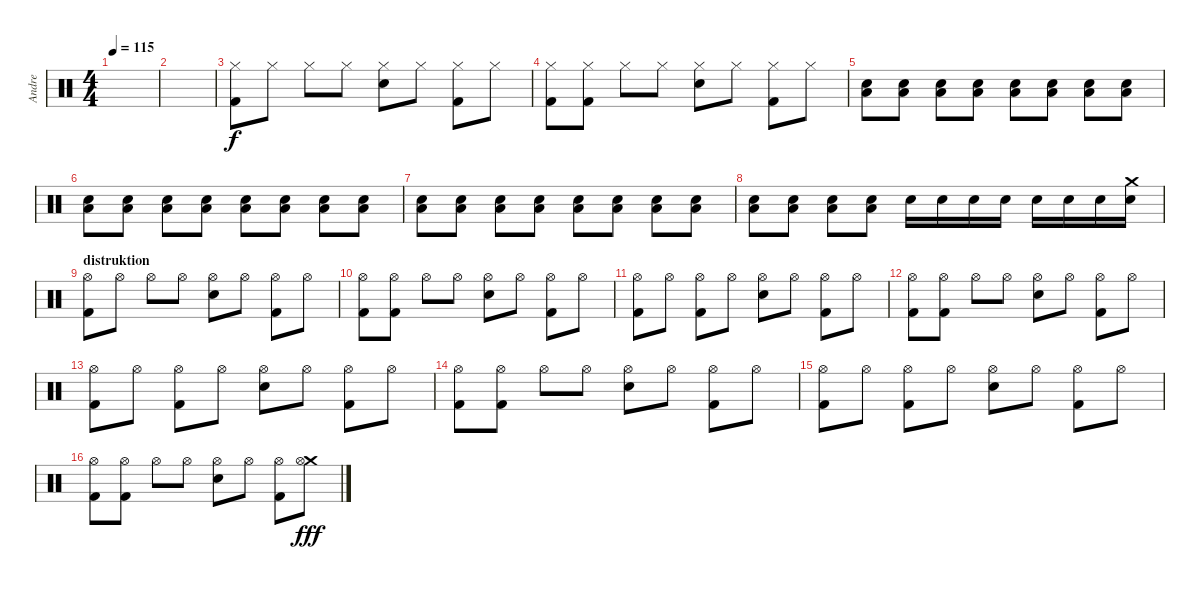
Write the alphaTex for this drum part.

\track ("Andre" "Andre") {instrument percussion}
\staff {score}
\articulation defaults
\ts (4 4)
\tempo 115
\clef neutral
\ks c
|
|
("Kick (hit) 2" "Hi-Hat (closed)").8 "Hi-Hat (closed)".8 "Hi-Hat (closed)".8 "Hi-Hat (closed)".8 ("Electric Snare (hit)" "Hi-Hat (closed)").8 "Hi-Hat (closed)".8 ("Kick (hit) 2" "Hi-Hat (closed)").8 "Hi-Hat (closed)".8 |
("Kick (hit) 2" "Hi-Hat (closed)").8 ("Kick (hit) 2" "Hi-Hat (closed)").8 "Hi-Hat (closed)".8 "Hi-Hat (closed)".8 ("Electric Snare (hit)" "Hi-Hat (closed)").8 "Hi-Hat (closed)".8 ("Kick (hit) 2" "Hi-Hat (closed)").8 "Hi-Hat (closed)".8 |
("Electric Snare (hit)" "Low Floor Tom (hit)").8 ("Low Floor Tom (hit)" "Electric Snare (hit)").8 ("Electric Snare (hit)" "Low Floor Tom (hit)").8 ("Electric Snare (hit)" "Low Floor Tom (hit)").8 ("Electric Snare (hit)" "Low Floor Tom (hit)").8 ("Electric Snare (hit)" "Low Floor Tom (hit)").8 ("Electric Snare (hit)" "Low Floor Tom (hit)").8 ("Electric Snare (hit)" "Low Floor Tom (hit)").8 |
("Electric Snare (hit)" "Low Floor Tom (hit)").8 ("Electric Snare (hit)" "Low Floor Tom (hit)").8 ("Low Floor Tom (hit)" "Electric Snare (hit)").8 ("Electric Snare (hit)" "Low Floor Tom (hit)").8 ("Electric Snare (hit)" "Low Floor Tom (hit)").8 ("Electric Snare (hit)" "Low Floor Tom (hit)").8 ("Electric Snare (hit)" "Low Floor Tom (hit)").8 ("Electric Snare (hit)" "Low Floor Tom (hit)").8 |
("Electric Snare (hit)" "Low Floor Tom (hit)").8 ("Low Floor Tom (hit)" "Electric Snare (hit)").8 ("Electric Snare (hit)" "Low Floor Tom (hit)").8 ("Electric Snare (hit)" "Low Floor Tom (hit)").8 ("Electric Snare (hit)" "Low Floor Tom (hit)").8 ("Electric Snare (hit)" "Low Floor Tom (hit)").8 ("Electric Snare (hit)" "Low Floor Tom (hit)").8 ("Electric Snare (hit)" "Low Floor Tom (hit)").8 |
("Electric Snare (hit)" "Low Floor Tom (hit)").8 ("Electric Snare (hit)" "Low Floor Tom (hit)").8 ("Low Floor Tom (hit)" "Electric Snare (hit)").8 ("Electric Snare (hit)" "Low Floor Tom (hit)").8 "Electric Snare (hit)".16 "Electric Snare (hit)".16 "Electric Snare (hit)".16 "Electric Snare (hit)".16 "Electric Snare (hit)".16 "Electric Snare (hit)".16 "Electric Snare (hit)".16 ("Crash medium (hit)" "Electric Snare (hit)").16 |
\section ("" "distruktion")
("Kick (hit) 2" "Hi-Hat (open)").8 "Hi-Hat (open)".8 "Hi-Hat (open)".8 "Hi-Hat (open)".8 ("Electric Snare (hit)" "Hi-Hat (open)").8 "Hi-Hat (open)".8 ("Kick (hit) 2" "Hi-Hat (open)").8 "Hi-Hat (open)".8 |
("Kick (hit) 2" "Hi-Hat (open)").8 ("Kick (hit) 2" "Hi-Hat (open)").8 "Hi-Hat (open)".8 "Hi-Hat (open)".8 ("Electric Snare (hit)" "Hi-Hat (open)").8 "Hi-Hat (open)".8 ("Kick (hit) 2" "Hi-Hat (open)").8 "Hi-Hat (open)".8 |
("Kick (hit) 2" "Hi-Hat (open)").8 "Hi-Hat (open)".8 ("Kick (hit) 2" "Hi-Hat (open)").8 "Hi-Hat (open)".8 ("Electric Snare (hit)" "Hi-Hat (open)").8 "Hi-Hat (open)".8 ("Kick (hit) 2" "Hi-Hat (open)").8 "Hi-Hat (open)".8 |
("Kick (hit) 2" "Hi-Hat (open)").8 ("Kick (hit) 2" "Hi-Hat (open)").8 "Hi-Hat (open)".8 "Hi-Hat (open)".8 ("Electric Snare (hit)" "Hi-Hat (open)").8 "Hi-Hat (open)".8 ("Kick (hit) 2" "Hi-Hat (open)").8 "Hi-Hat (open)".8 |
("Kick (hit) 2" "Hi-Hat (open)").8 "Hi-Hat (open)".8 ("Kick (hit) 2" "Hi-Hat (open)").8 "Hi-Hat (open)".8 ("Electric Snare (hit)" "Hi-Hat (open)").8 "Hi-Hat (open)".8 ("Kick (hit) 2" "Hi-Hat (open)").8 "Hi-Hat (open)".8 |
("Kick (hit) 2" "Hi-Hat (open)").8 ("Kick (hit) 2" "Hi-Hat (open)").8 "Hi-Hat (open)".8 "Hi-Hat (open)".8 ("Electric Snare (hit)" "Hi-Hat (open)").8 "Hi-Hat (open)".8 ("Kick (hit) 2" "Hi-Hat (open)").8 "Hi-Hat (open)".8 |
("Kick (hit) 2" "Hi-Hat (open)").8 "Hi-Hat (open)".8 ("Kick (hit) 2" "Hi-Hat (open)").8 "Hi-Hat (open)".8 ("Electric Snare (hit)" "Hi-Hat (open)").8 "Hi-Hat (open)".8 ("Kick (hit) 2" "Hi-Hat (open)").8 "Hi-Hat (open)".8 |
("Kick (hit) 2" "Hi-Hat (open)").8 ("Kick (hit) 2" "Hi-Hat (open)").8 "Hi-Hat (open)".8 "Hi-Hat (open)".8 ("Electric Snare (hit)" "Hi-Hat (open)").8 "Hi-Hat (open)".8 ("Kick (hit) 2" "Hi-Hat (open)").8 ("Crash medium (hit)" "Hi-Hat (open)").8{dy fff}
